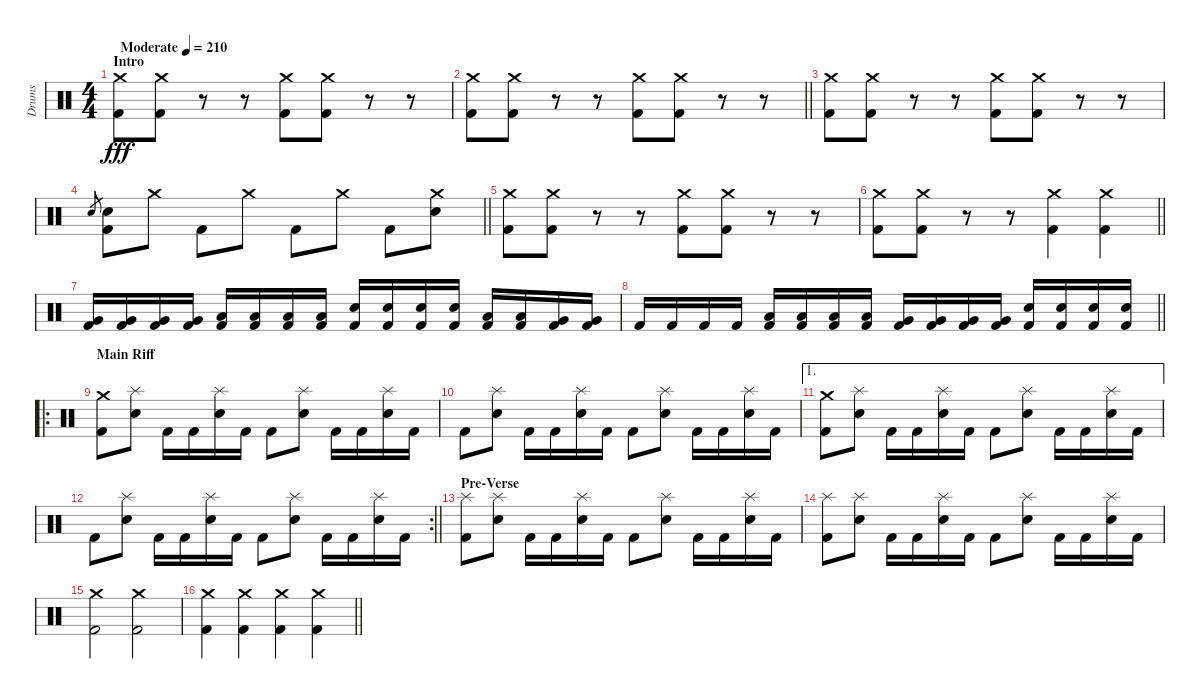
\track ("Drums" "Drums") {instrument percussion}
\staff {score}
\articulation defaults
\ts (4 4)
\section ("" "Intro")
\tempo (210 "Moderate")
\clef neutral
\ks c
("Crash medium (hit)" "Kick (hit) 2").8{dy fff} ("Crash medium (hit)" "Kick (hit) 2").8 r.8 r.8 ("Crash medium (hit)" "Kick (hit) 2").8 ("Crash medium (hit)" "Kick (hit) 2").8 r.8 r.8 |
\barLineRight lightlight
("Crash medium (hit)" "Kick (hit) 2").8 ("Crash medium (hit)" "Kick (hit) 2").8 r.8 r.8 ("Crash medium (hit)" "Kick (hit) 2").8 ("Crash medium (hit)" "Kick (hit) 2").8 r.8 r.8 |
("Crash medium (hit)" "Kick (hit) 2").8 ("Crash medium (hit)" "Kick (hit) 2").8 r.8 r.8 ("Crash medium (hit)" "Kick (hit) 2").8 ("Crash medium (hit)" "Kick (hit) 2").8 r.8 r.8 |
\barLineRight lightlight "Electric Snare (hit)".8{gr}
("Electric Snare (hit)" "Kick (hit) 2").8 "Crash medium (hit)".8 "Kick (hit) 2".8 "Crash medium (hit)".8 "Kick (hit) 2".8 "Crash medium (hit)".8 "Kick (hit) 2".8 ("Crash medium (hit)" "Electric Snare (hit)").8 |
("Crash medium (hit)" "Kick (hit) 2").8 ("Crash medium (hit)" "Kick (hit) 2").8 r.8 r.8 ("Crash medium (hit)" "Kick (hit) 2").8 ("Crash medium (hit)" "Kick (hit) 2").8 r.8 r.8 |
\barLineRight lightlight
("Crash medium (hit)" "Kick (hit) 2").8 ("Crash medium (hit)" "Kick (hit) 2").8 r.8 r.8 ("Crash medium (hit)" "Kick (hit) 2").4 ("Crash medium (hit)" "Kick (hit) 2").4 |
("Very Low Tom (hit)" "Kick (hit) 2").16 ("Very Low Tom (hit)" "Kick (hit) 2").16 ("Very Low Tom (hit)" "Kick (hit) 2").16 ("Very Low Tom (hit)" "Kick (hit) 2").16 ("Low Tom (hit)" "Kick (hit) 2").16 ("Low Tom (hit)" "Kick (hit) 2").16 ("Low Floor Tom (hit)" "Kick (hit) 2").16 ("Low Floor Tom (hit)" "Kick (hit) 2").16 ("Electric Snare (hit)" "Kick (hit) 2").16 ("Electric Snare (hit)" "Kick (hit) 2").16 ("Electric Snare (hit)" "Kick (hit) 2").16 ("Electric Snare (hit)" "Kick (hit) 2").16 ("Low Tom (hit)" "Kick (hit) 2").16 ("Low Tom (hit)" "Kick (hit) 2").16 ("Very Low Tom (hit)" "Kick (hit) 2").16 ("Very Low Tom (hit)" "Kick (hit) 2").16 |
\barLineRight lightlight "Kick (hit) 2".16 "Kick (hit) 2".16 "Kick (hit) 2".16 "Kick (hit) 2".16
("Low Tom (hit)" "Kick (hit) 2").16 ("Low Tom (hit)" "Kick (hit) 2").16 ("Low Tom (hit)" "Kick (hit) 2").16 ("Low Tom (hit)" "Kick (hit) 2").16 ("Very Low Tom (hit)" "Kick (hit) 2").16 ("Very Low Tom (hit)" "Kick (hit) 2").16 ("Very Low Tom (hit)" "Kick (hit) 2").16 ("Very Low Tom (hit)" "Kick (hit) 2").16 ("Electric Snare (hit)" "Kick (hit) 2").16 ("Electric Snare (hit)" "Kick (hit) 2").16 ("Electric Snare (hit)" "Kick (hit) 2").16 ("Electric Snare (hit)" "Kick (hit) 2").16 |
\ro
\section ("" "Main Riff")
("Crash medium (hit)" "Kick (hit) 2").8 ("Splash (hit)" "Electric Snare (hit)").8 "Kick (hit) 2".16 "Kick (hit) 2".16 ("Splash (hit)" "Electric Snare (hit)").16 "Kick (hit) 2".16 "Kick (hit) 2".8 ("Splash (hit)" "Electric Snare (hit)").8 "Kick (hit) 2".16 "Kick (hit) 2".16 ("Splash (hit)" "Electric Snare (hit)").16 "Kick (hit) 2".16 |
"Kick (hit) 2".8 ("Splash (hit)" "Electric Snare (hit)").8 "Kick (hit) 2".16 "Kick (hit) 2".16 ("Splash (hit)" "Electric Snare (hit)").16 "Kick (hit) 2".16 "Kick (hit) 2".8 ("Splash (hit)" "Electric Snare (hit)").8 "Kick (hit) 2".16 "Kick (hit) 2".16 ("Splash (hit)" "Electric Snare (hit)").16 "Kick (hit) 2".16 |
\ae 1
("Crash medium (hit)" "Kick (hit) 2").8 ("Splash (hit)" "Electric Snare (hit)").8 "Kick (hit) 2".16 "Kick (hit) 2".16 ("Splash (hit)" "Electric Snare (hit)").16 "Kick (hit) 2".16 "Kick (hit) 2".8 ("Splash (hit)" "Electric Snare (hit)").8 "Kick (hit) 2".16 "Kick (hit) 2".16 ("Splash (hit)" "Electric Snare (hit)").16 "Kick (hit) 2".16 |
\rc 2
\barLineRight lightlight "Kick (hit) 2".8
("Splash (hit)" "Electric Snare (hit)").8 "Kick (hit) 2".16 "Kick (hit) 2".16 ("Splash (hit)" "Electric Snare (hit)").16 "Kick (hit) 2".16 "Kick (hit) 2".8 ("Splash (hit)" "Electric Snare (hit)").8 "Kick (hit) 2".16 "Kick (hit) 2".16 ("Splash (hit)" "Electric Snare (hit)").16 "Kick (hit) 2".16 |
\section ("" "Pre-Verse")
("Splash (hit)" "Kick (hit) 2").8 ("Splash (hit)" "Electric Snare (hit)").8 "Kick (hit) 2".16 "Kick (hit) 2".16 ("Splash (hit)" "Electric Snare (hit)").16 "Kick (hit) 2".16 "Kick (hit) 2".8 ("Splash (hit)" "Electric Snare (hit)").8 "Kick (hit) 2".16 "Kick (hit) 2".16 ("Splash (hit)" "Electric Snare (hit)").16 "Kick (hit) 2".16 |
("Splash (hit)" "Kick (hit) 2").8 ("Splash (hit)" "Electric Snare (hit)").8 "Kick (hit) 2".16 "Kick (hit) 2".16 ("Splash (hit)" "Electric Snare (hit)").16 "Kick (hit) 2".16 "Kick (hit) 2".8 ("Splash (hit)" "Electric Snare (hit)").8 "Kick (hit) 2".16 "Kick (hit) 2".16 ("Splash (hit)" "Electric Snare (hit)").16 "Kick (hit) 2".16 |
("Crash medium (hit)" "Kick (hit) 2").2 ("Crash medium (hit)" "Kick (hit) 2").2 |
\barLineRight lightlight
("Crash medium (hit)" "Kick (hit) 2").4 ("Crash medium (hit)" "Kick (hit) 2").4 ("Crash medium (hit)" "Kick (hit) 2").4 ("Crash medium (hit)" "Kick (hit) 2").4
